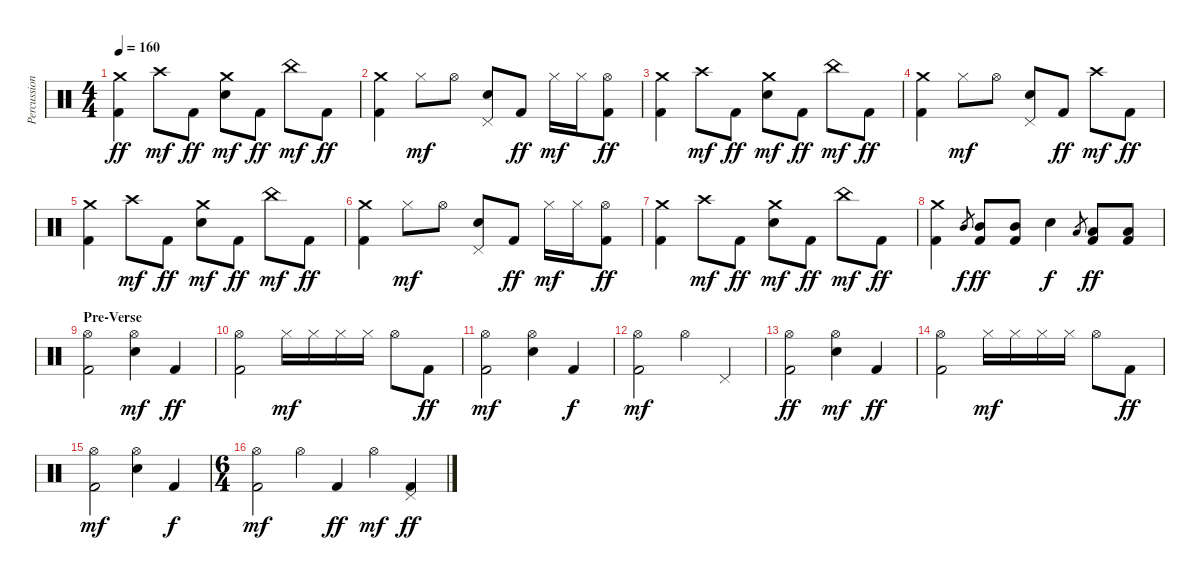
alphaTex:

\track ("Percussion" "Percussion") {instrument percussion}
\staff {score}
\articulation defaults
\ts (4 4)
\tempo 160
\clef neutral
\ks c
("Crash medium (hit)" "Kick (hit) 2").4{dy ff} "Crash high (hit)".8{dy mf} "Kick (hit) 2".8{dy ff} ("Crash medium (hit)" "Electric Snare (hit)").8{dy mf} "Kick (hit) 2".8{dy ff} "China (hit)".8{dy mf} "Kick (hit) 2".8{dy ff} |
("Crash medium (hit)" "Kick (hit) 2").4 "Hi-Hat (closed)".8{dy mf} "Hi-Hat (open)".8 ("Pedal Hi-Hat (hit)" "Electric Snare (hit)").8 "Kick (hit) 2".8{dy ff} "Hi-Hat (closed)".16{dy mf} "Hi-Hat (closed)".16 ("Hi-Hat (open)" "Kick (hit) 2").8{dy ff} |
("Crash medium (hit)" "Kick (hit) 2").4 "Crash high (hit)".8{dy mf} "Kick (hit) 2".8{dy ff} ("Crash medium (hit)" "Electric Snare (hit)").8{dy mf} "Kick (hit) 2".8{dy ff} "China (hit)".8{dy mf} "Kick (hit) 2".8{dy ff} |
("Crash medium (hit)" "Kick (hit) 2").4 "Hi-Hat (closed)".8{dy mf} "Hi-Hat (open)".8 ("Pedal Hi-Hat (hit)" "Electric Snare (hit)").8 "Kick (hit) 2".8{dy ff} "Crash high (hit)".8{dy mf} "Kick (hit) 2".8{dy ff} |
("Crash medium (hit)" "Kick (hit) 2").4 "Crash high (hit)".8{dy mf} "Kick (hit) 2".8{dy ff} ("Crash medium (hit)" "Electric Snare (hit)").8{dy mf} "Kick (hit) 2".8{dy ff} "China (hit)".8{dy mf} "Kick (hit) 2".8{dy ff} |
("Crash medium (hit)" "Kick (hit) 2").4 "Hi-Hat (closed)".8{dy mf} "Hi-Hat (open)".8 ("Pedal Hi-Hat (hit)" "Electric Snare (hit)").8 "Kick (hit) 2".8{dy ff} "Hi-Hat (closed)".16{dy mf} "Hi-Hat (closed)".16 ("Hi-Hat (open)" "Kick (hit) 2").8{dy ff} |
("Crash medium (hit)" "Kick (hit) 2").4 "Crash high (hit)".8{dy mf} "Kick (hit) 2".8{dy ff} ("Crash medium (hit)" "Electric Snare (hit)").8{dy mf} "Kick (hit) 2".8{dy ff} "China (hit)".8{dy mf} "Kick (hit) 2".8{dy ff} |
("Crash medium (hit)" "Kick (hit) 2").4 "Mid Tom (hit)".8{gr dy f} ("Mid Tom (hit)" "Kick (hit) 2").8{dy ff} ("Mid Tom (hit)" "Kick (hit) 2").8 "Electric Snare (hit)".4{dy f} "Low Tom (hit)".8{gr} ("Low Tom (hit)" "Kick (hit) 2").8{dy ff} ("Low Tom (hit)" "Kick (hit) 2").8 |
\section ("" "Pre-Verse")
("Hi-Hat (open)" "Kick (hit) 2").2 ("Hi-Hat (open)" "Electric Snare (hit)").4{dy mf} "Kick (hit) 2".4{dy ff} |
("Hi-Hat (open)" "Kick (hit) 2").2 "Hi-Hat (closed)".16{dy mf} "Hi-Hat (closed)".16 "Hi-Hat (closed)".16 "Hi-Hat (closed)".16 "Hi-Hat (open)".8 "Kick (hit) 2".8{dy ff} |
("Hi-Hat (open)" "Kick (hit) 2").2{dy mf} ("Hi-Hat (open)" "Electric Snare (hit)").4 "Kick (hit) 2".4{dy f} |
("Hi-Hat (open)" "Kick (hit) 2").2{dy mf} "Hi-Hat (open)".4 "Pedal Hi-Hat (hit)".4 |
("Hi-Hat (open)" "Kick (hit) 2").2{dy ff} ("Hi-Hat (open)" "Electric Snare (hit)").4{dy mf} "Kick (hit) 2".4{dy ff} |
("Hi-Hat (open)" "Kick (hit) 2").2 "Hi-Hat (closed)".16{dy mf} "Hi-Hat (closed)".16 "Hi-Hat (closed)".16 "Hi-Hat (closed)".16 "Hi-Hat (open)".8 "Kick (hit) 2".8{dy ff} |
("Hi-Hat (open)" "Kick (hit) 2").2{dy mf} ("Hi-Hat (open)" "Electric Snare (hit)").4 "Kick (hit) 2".4{dy f} |
\ts (6 4)
("Hi-Hat (open)" "Kick (hit) 2").2{dy mf} "Hi-Hat (open)".4 "Kick (hit) 2".4{dy ff} "Hi-Hat (open)".4{dy mf} ("Pedal Hi-Hat (hit)" "Kick (hit) 2").4{dy ff}
